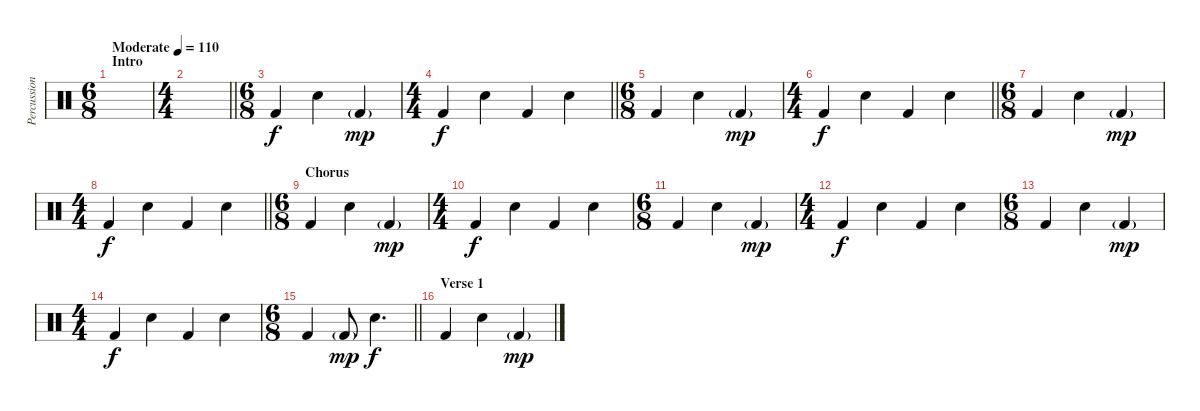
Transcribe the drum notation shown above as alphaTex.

\track ("Percussion" "Percussion") {instrument percussion}
\staff {score}
\articulation defaults
\ts (6 8)
\section ("" "Intro")
\tempo (110 "Moderate")
\clef neutral
\ks c
|
\ts (4 4)
\barLineRight lightlight
|
\ts (6 8)
"Kick (hit) 2".4 "Snare (hit) 2".4 "Kick (hit) 2"{g}.4{dy mp} |
\ts (4 4)
\barLineRight lightlight "Kick (hit) 2".4{dy f} "Snare (hit) 2".4 "Kick (hit) 2".4 "Snare (hit) 2".4
|
\ts (6 8)
"Kick (hit) 2".4 "Snare (hit) 2".4 "Kick (hit) 2"{g}.4{dy mp} |
\ts (4 4)
\barLineRight lightlight "Kick (hit) 2".4{dy f} "Snare (hit) 2".4 "Kick (hit) 2".4 "Snare (hit) 2".4
|
\ts (6 8)
"Kick (hit) 2".4 "Snare (hit) 2".4 "Kick (hit) 2"{g}.4{dy mp} |
\ts (4 4)
\barLineRight lightlight "Kick (hit) 2".4{dy f} "Snare (hit) 2".4 "Kick (hit) 2".4 "Snare (hit) 2".4
|
\ts (6 8)
\section ("" "Chorus")
"Kick (hit) 2".4 "Snare (hit) 2".4 "Kick (hit) 2"{g}.4{dy mp} |
\ts (4 4)
"Kick (hit) 2".4{dy f} "Snare (hit) 2".4 "Kick (hit) 2".4 "Snare (hit) 2".4 |
\ts (6 8)
"Kick (hit) 2".4 "Snare (hit) 2".4 "Kick (hit) 2"{g}.4{dy mp} |
\ts (4 4)
"Kick (hit) 2".4{dy f} "Snare (hit) 2".4 "Kick (hit) 2".4 "Snare (hit) 2".4 |
\ts (6 8)
"Kick (hit) 2".4 "Snare (hit) 2".4 "Kick (hit) 2"{g}.4{dy mp} |
\ts (4 4)
"Kick (hit) 2".4{dy f} "Snare (hit) 2".4 "Kick (hit) 2".4 "Snare (hit) 2".4 |
\ts (6 8)
\barLineRight lightlight "Kick (hit) 2".4 "Kick (hit) 2"{g}.8{dy mp} "Snare (hit) 2".4{d dy f}
|
\section ("" "Verse 1")
"Kick (hit) 2".4 "Snare (hit) 2".4 "Kick (hit) 2"{g}.4{dy mp}
